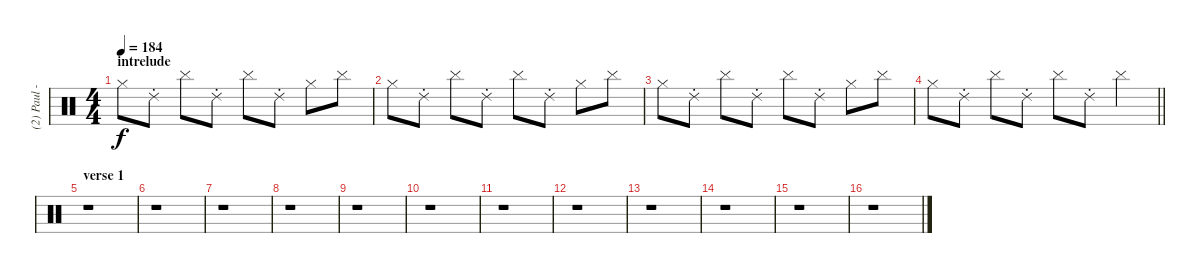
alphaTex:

\track ("(2) Paul - DJ" "(2) Paul -") {instrument percussion}
\staff {score}
\articulation defaults
\ts (4 4)
\section ("" "intrelude")
\tempo 184
\clef neutral
\ks c "Hi-Hat (closed)".8{dy f} "Ride (choke) 2".8 "Cymbal (hit)".8 "Ride (choke) 2".8 "Cymbal (hit)".8 "Ride (choke) 2".8 "Hi-Hat (closed)".8 "Cymbal (hit)".8
|
"Hi-Hat (closed)".8 "Ride (choke) 2".8 "Cymbal (hit)".8 "Ride (choke) 2".8 "Cymbal (hit)".8 "Ride (choke) 2".8 "Hi-Hat (closed)".8 "Cymbal (hit)".8 |
"Hi-Hat (closed)".8 "Ride (choke) 2".8 "Cymbal (hit)".8 "Ride (choke) 2".8 "Cymbal (hit)".8 "Ride (choke) 2".8 "Hi-Hat (closed)".8 "Cymbal (hit)".8 |
\barLineRight lightlight "Hi-Hat (closed)".8 "Ride (choke) 2".8 "Cymbal (hit)".8 "Ride (choke) 2".8 "Cymbal (hit)".8 "Ride (choke) 2".8 "Cymbal (hit)".4
|
\section ("" "verse 1")
r.1 |
r.1 |
r.1 |
r.1 |
r.1 |
r.1 |
r.1 |
r.1 |
r.1 |
r.1 |
r.1 |
r.1
